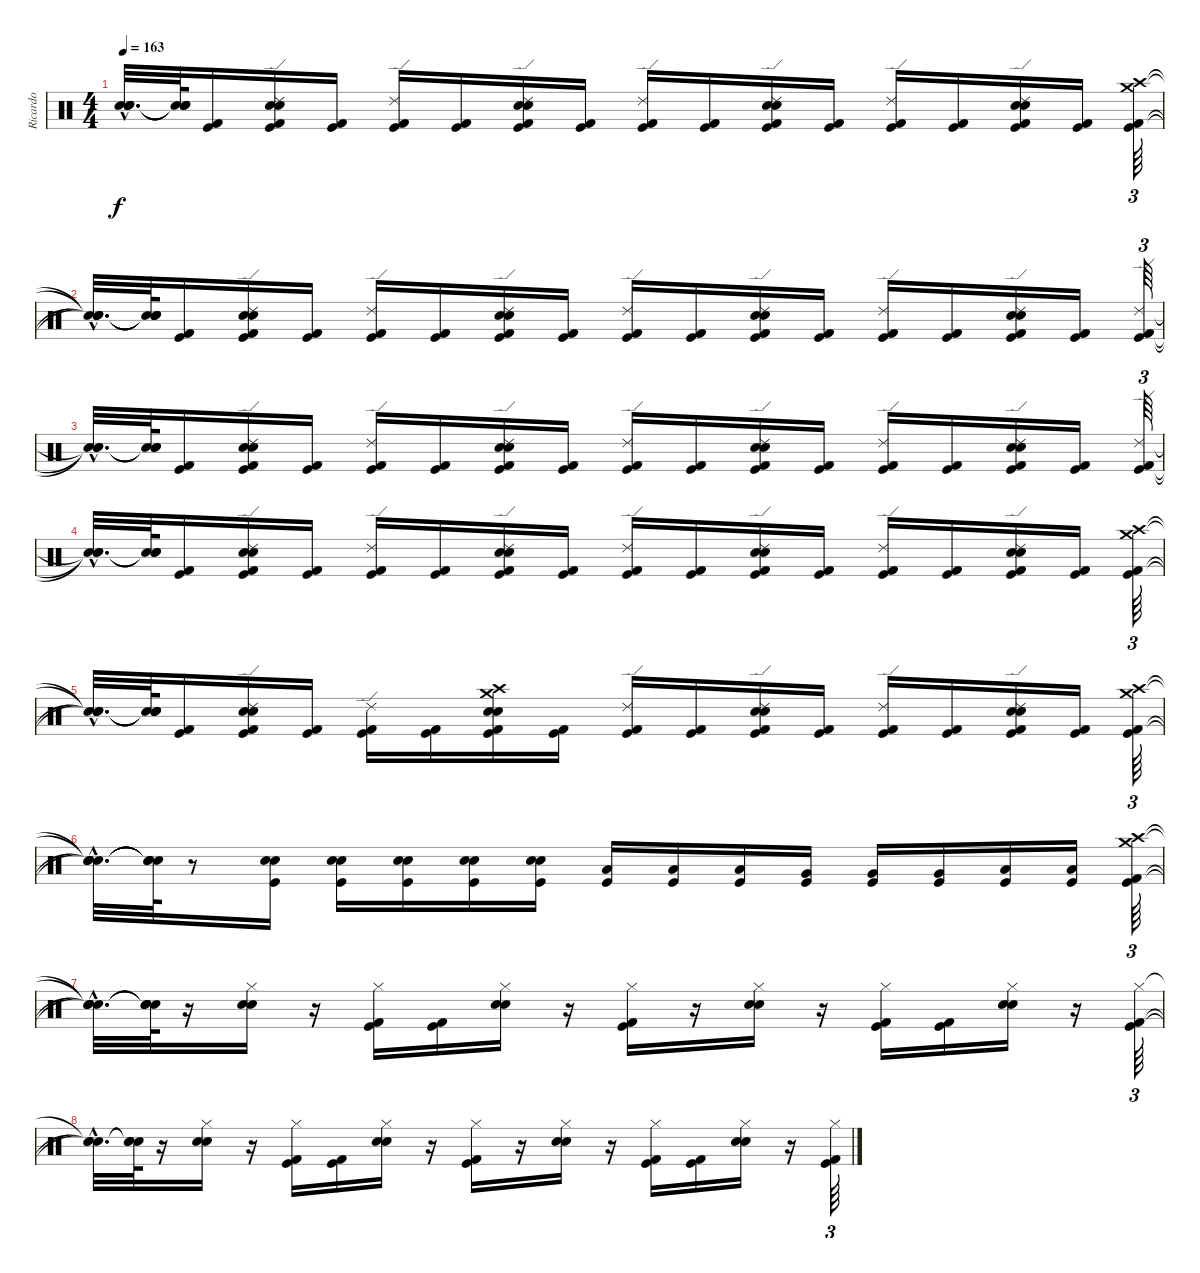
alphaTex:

\track ("Ricardo" "Ricardo") {instrument percussion}
\staff {score}
\articulation defaults
\ts (4 4)
\tempo 163
\clef neutral
\ks c
("Snare (hit)"{hac t} "Snare (hit)"{hac t} "Snare (hit)"{hac t} "Snare (hit)"{hac t}).32{d dy f} ("Snare (hit)"{t} "Snare (hit)"{t} "Snare (hit)"{t} "Snare (hit)"{t}).64 ("Kick (hit) 2" "Kick (hit)").16 ("Ride (edge) 2" "Electric Snare (hit)" "Snare (hit) 2" "Kick (hit) 2" "Kick (hit)").16 ("Kick (hit) 2" "Kick (hit)").16 ("Ride (edge) 2" "Kick (hit) 2" "Kick (hit)").16 ("Kick (hit) 2" "Kick (hit)").16 ("Ride (edge) 2" "Electric Snare (hit)" "Snare (hit) 2" "Kick (hit) 2" "Kick (hit)").16 ("Kick (hit) 2" "Kick (hit)").16 ("Ride (edge) 2" "Kick (hit) 2" "Kick (hit)").16 ("Kick (hit) 2" "Kick (hit)").16 ("Ride (edge) 2" "Electric Snare (hit)" "Snare (hit) 2" "Kick (hit) 2" "Kick (hit)").16 ("Kick (hit) 2" "Kick (hit)").16 ("Ride (edge) 2" "Kick (hit) 2" "Kick (hit)").16 ("Kick (hit) 2" "Kick (hit)").16 ("Ride (edge) 2" "Electric Snare (hit)" "Snare (hit) 2" "Kick (hit) 2" "Kick (hit)").16 ("Kick (hit) 2" "Kick (hit)").16 ("Crash high (hit)" "Crash medium (hit)" "Kick (hit) 2" "Kick (hit)").64{tu (3 2)} |
("Snare (hit)"{hac t} "Snare (hit)"{hac t} "Snare (hit)"{hac t} "Snare (hit)"{hac t}).32{d} ("Snare (hit)"{t} "Snare (hit)"{t} "Snare (hit)"{t} "Snare (hit)"{t}).64 ("Kick (hit) 2" "Kick (hit)").16 ("Ride (edge) 2" "Electric Snare (hit)" "Snare (hit) 2" "Kick (hit) 2" "Kick (hit)").16 ("Kick (hit) 2" "Kick (hit)").16 ("Ride (edge) 2" "Kick (hit) 2" "Kick (hit)").16 ("Kick (hit) 2" "Kick (hit)").16 ("Ride (edge) 2" "Electric Snare (hit)" "Snare (hit) 2" "Kick (hit) 2" "Kick (hit)").16 ("Kick (hit) 2" "Kick (hit)").16 ("Ride (edge) 2" "Kick (hit) 2" "Kick (hit)").16 ("Kick (hit) 2" "Kick (hit)").16 ("Ride (edge) 2" "Electric Snare (hit)" "Snare (hit) 2" "Kick (hit) 2" "Kick (hit)").16 ("Kick (hit) 2" "Kick (hit)").16 ("Ride (edge) 2" "Kick (hit) 2" "Kick (hit)").16 ("Kick (hit) 2" "Kick (hit)").16 ("Ride (edge) 2" "Electric Snare (hit)" "Snare (hit) 2" "Kick (hit) 2" "Kick (hit)").16 ("Kick (hit) 2" "Kick (hit)").16 ("Ride (edge) 2" "Kick (hit) 2" "Kick (hit)").64{tu (3 2)} |
("Snare (hit)"{hac t} "Snare (hit)"{hac t} "Snare (hit)"{hac t}).32{d} ("Snare (hit)"{t} "Snare (hit)"{t} "Snare (hit)"{t}).64 ("Kick (hit) 2" "Kick (hit)").16 ("Ride (edge) 2" "Electric Snare (hit)" "Snare (hit) 2" "Kick (hit) 2" "Kick (hit)").16 ("Kick (hit) 2" "Kick (hit)").16 ("Ride (edge) 2" "Kick (hit) 2" "Kick (hit)").16 ("Kick (hit) 2" "Kick (hit)").16 ("Ride (edge) 2" "Electric Snare (hit)" "Snare (hit) 2" "Kick (hit) 2" "Kick (hit)").16 ("Kick (hit) 2" "Kick (hit)").16 ("Ride (edge) 2" "Kick (hit) 2" "Kick (hit)").16 ("Kick (hit) 2" "Kick (hit)").16 ("Ride (edge) 2" "Electric Snare (hit)" "Snare (hit) 2" "Kick (hit) 2" "Kick (hit)").16 ("Kick (hit) 2" "Kick (hit)").16 ("Ride (edge) 2" "Kick (hit) 2" "Kick (hit)").16 ("Kick (hit) 2" "Kick (hit)").16 ("Ride (edge) 2" "Electric Snare (hit)" "Snare (hit) 2" "Kick (hit) 2" "Kick (hit)").16 ("Kick (hit) 2" "Kick (hit)").16 ("Ride (edge) 2" "Kick (hit) 2" "Kick (hit)").64{tu (3 2)} |
("Snare (hit)"{hac t} "Snare (hit)"{hac t} "Snare (hit)"{hac t}).32{d} ("Snare (hit)"{t} "Snare (hit)"{t} "Snare (hit)"{t}).64 ("Kick (hit) 2" "Kick (hit)").16 ("Ride (edge) 2" "Electric Snare (hit)" "Snare (hit) 2" "Kick (hit) 2" "Kick (hit)").16 ("Kick (hit) 2" "Kick (hit)").16 ("Ride (edge) 2" "Kick (hit) 2" "Kick (hit)").16 ("Kick (hit) 2" "Kick (hit)").16 ("Ride (edge) 2" "Electric Snare (hit)" "Snare (hit) 2" "Kick (hit) 2" "Kick (hit)").16 ("Kick (hit) 2" "Kick (hit)").16 ("Ride (edge) 2" "Kick (hit) 2" "Kick (hit)").16 ("Kick (hit) 2" "Kick (hit)").16 ("Ride (edge) 2" "Electric Snare (hit)" "Snare (hit) 2" "Kick (hit) 2" "Kick (hit)").16 ("Kick (hit) 2" "Kick (hit)").16 ("Ride (edge) 2" "Kick (hit) 2" "Kick (hit)").16 ("Kick (hit) 2" "Kick (hit)").16 ("Ride (edge) 2" "Electric Snare (hit)" "Snare (hit) 2" "Kick (hit) 2" "Kick (hit)").16 ("Kick (hit) 2" "Kick (hit)").16 ("Crash high (hit)" "Crash medium (hit)" "Kick (hit) 2" "Kick (hit)").64{tu (3 2)} |
("Snare (hit)"{hac t} "Snare (hit)"{hac t} "Snare (hit)"{hac t} "Snare (hit)"{hac t}).32{d} ("Snare (hit)"{t} "Snare (hit)"{t} "Snare (hit)"{t} "Snare (hit)"{t}).64 ("Kick (hit) 2" "Kick (hit)").16 ("Ride (edge) 2" "Electric Snare (hit)" "Snare (hit) 2" "Kick (hit) 2" "Kick (hit)").16 ("Kick (hit) 2" "Kick (hit)").16 ("Ride (edge) 2" "Kick (hit) 2" "Kick (hit)").16 ("Kick (hit) 2" "Kick (hit)").16 ("Crash high (hit)" "Crash medium (hit)" "Electric Snare (hit)" "Snare (hit) 2" "Kick (hit) 2" "Kick (hit)").16 ("Kick (hit) 2" "Kick (hit)").16 ("Ride (edge) 2" "Kick (hit) 2" "Kick (hit)").16 ("Kick (hit) 2" "Kick (hit)").16 ("Ride (edge) 2" "Electric Snare (hit)" "Snare (hit) 2" "Kick (hit) 2" "Kick (hit)").16 ("Kick (hit) 2" "Kick (hit)").16 ("Ride (edge) 2" "Kick (hit) 2" "Kick (hit)").16 ("Kick (hit) 2" "Kick (hit)").16 ("Ride (edge) 2" "Electric Snare (hit)" "Snare (hit) 2" "Kick (hit) 2" "Kick (hit)").16 ("Kick (hit) 2" "Kick (hit)").16 ("Crash high (hit)" "Crash medium (hit)" "Kick (hit) 2" "Kick (hit)").64{tu (3 2)} |
("Snare (hit)"{hac t} "Snare (hit)"{hac t} "Snare (hit)"{hac t} "Snare (hit)"{hac t}).32{d} ("Snare (hit)"{t} "Snare (hit)"{t} "Snare (hit)"{t} "Snare (hit)"{t}).64 r.8 ("Kick (hit)" "Electric Snare (hit)" "Snare (hit) 2").16 ("Kick (hit)" "Electric Snare (hit)" "Snare (hit) 2").16 ("Kick (hit)" "Electric Snare (hit)" "Snare (hit) 2").16 ("Kick (hit)" "Electric Snare (hit)" "Snare (hit) 2").16 ("Kick (hit)" "Electric Snare (hit)" "Snare (hit) 2").16 ("Kick (hit)" "Low Tom (hit)").16 ("Low Tom (hit)" "Kick (hit)").16 ("Low Tom (hit)" "Kick (hit)").16 ("Very Low Tom (hit)" "Kick (hit)").16 ("Very Low Tom (hit)" "Kick (hit)").16 ("Very Low Tom (hit)" "Kick (hit)").16 ("Low Floor Tom (hit)" "Kick (hit)").16 ("Low Floor Tom (hit)" "Kick (hit)").16 ("Crash high (hit)" "Crash medium (hit)" "Kick (hit) 2" "Kick (hit)").64{tu (3 2)} |
("Snare (hit)"{hac t} "Snare (hit)"{hac t} "Snare (hit)"{hac t} "Snare (hit)"{hac t}).32{d} ("Snare (hit)"{t} "Snare (hit)"{t} "Snare (hit)"{t} "Snare (hit)"{t}).64 r.16 ("Hi-Hat (closed)" "Electric Snare (hit)" "Snare (hit) 2").16 r.16 ("Kick (hit)" "Kick (hit) 2" "Hi-Hat (closed)").16 ("Kick (hit)" "Kick (hit) 2").16 ("Electric Snare (hit)" "Snare (hit) 2" "Hi-Hat (closed)").16 r.16 ("Kick (hit)" "Kick (hit) 2" "Hi-Hat (closed)").16 r.16 ("Electric Snare (hit)" "Snare (hit) 2" "Hi-Hat (closed)").16 r.16 ("Kick (hit) 2" "Kick (hit)" "Hi-Hat (closed)").16 ("Kick (hit) 2" "Kick (hit)").16 ("Electric Snare (hit)" "Snare (hit) 2" "Hi-Hat (closed)").16 r.16 ("Hi-Hat (closed)" "Kick (hit) 2" "Kick (hit)").64{tu (3 2)} |
("Snare (hit)"{hac t} "Snare (hit)"{hac t} "Snare (hit)"{hac t}).32{d} ("Snare (hit)"{t} "Snare (hit)"{t} "Snare (hit)"{t}).64 r.16 ("Hi-Hat (closed)" "Electric Snare (hit)" "Snare (hit) 2").16 r.16 ("Kick (hit)" "Kick (hit) 2" "Hi-Hat (closed)").16 ("Kick (hit)" "Kick (hit) 2").16 ("Electric Snare (hit)" "Snare (hit) 2" "Hi-Hat (closed)").16 r.16 ("Kick (hit)" "Kick (hit) 2" "Hi-Hat (closed)").16 r.16 ("Electric Snare (hit)" "Snare (hit) 2" "Hi-Hat (closed)").16 r.16 ("Kick (hit) 2" "Kick (hit)" "Hi-Hat (closed)").16 ("Kick (hit) 2" "Kick (hit)").16 ("Electric Snare (hit)" "Snare (hit) 2" "Hi-Hat (closed)").16 r.16 ("Hi-Hat (closed)" "Kick (hit) 2" "Kick (hit)").64{tu (3 2)}
